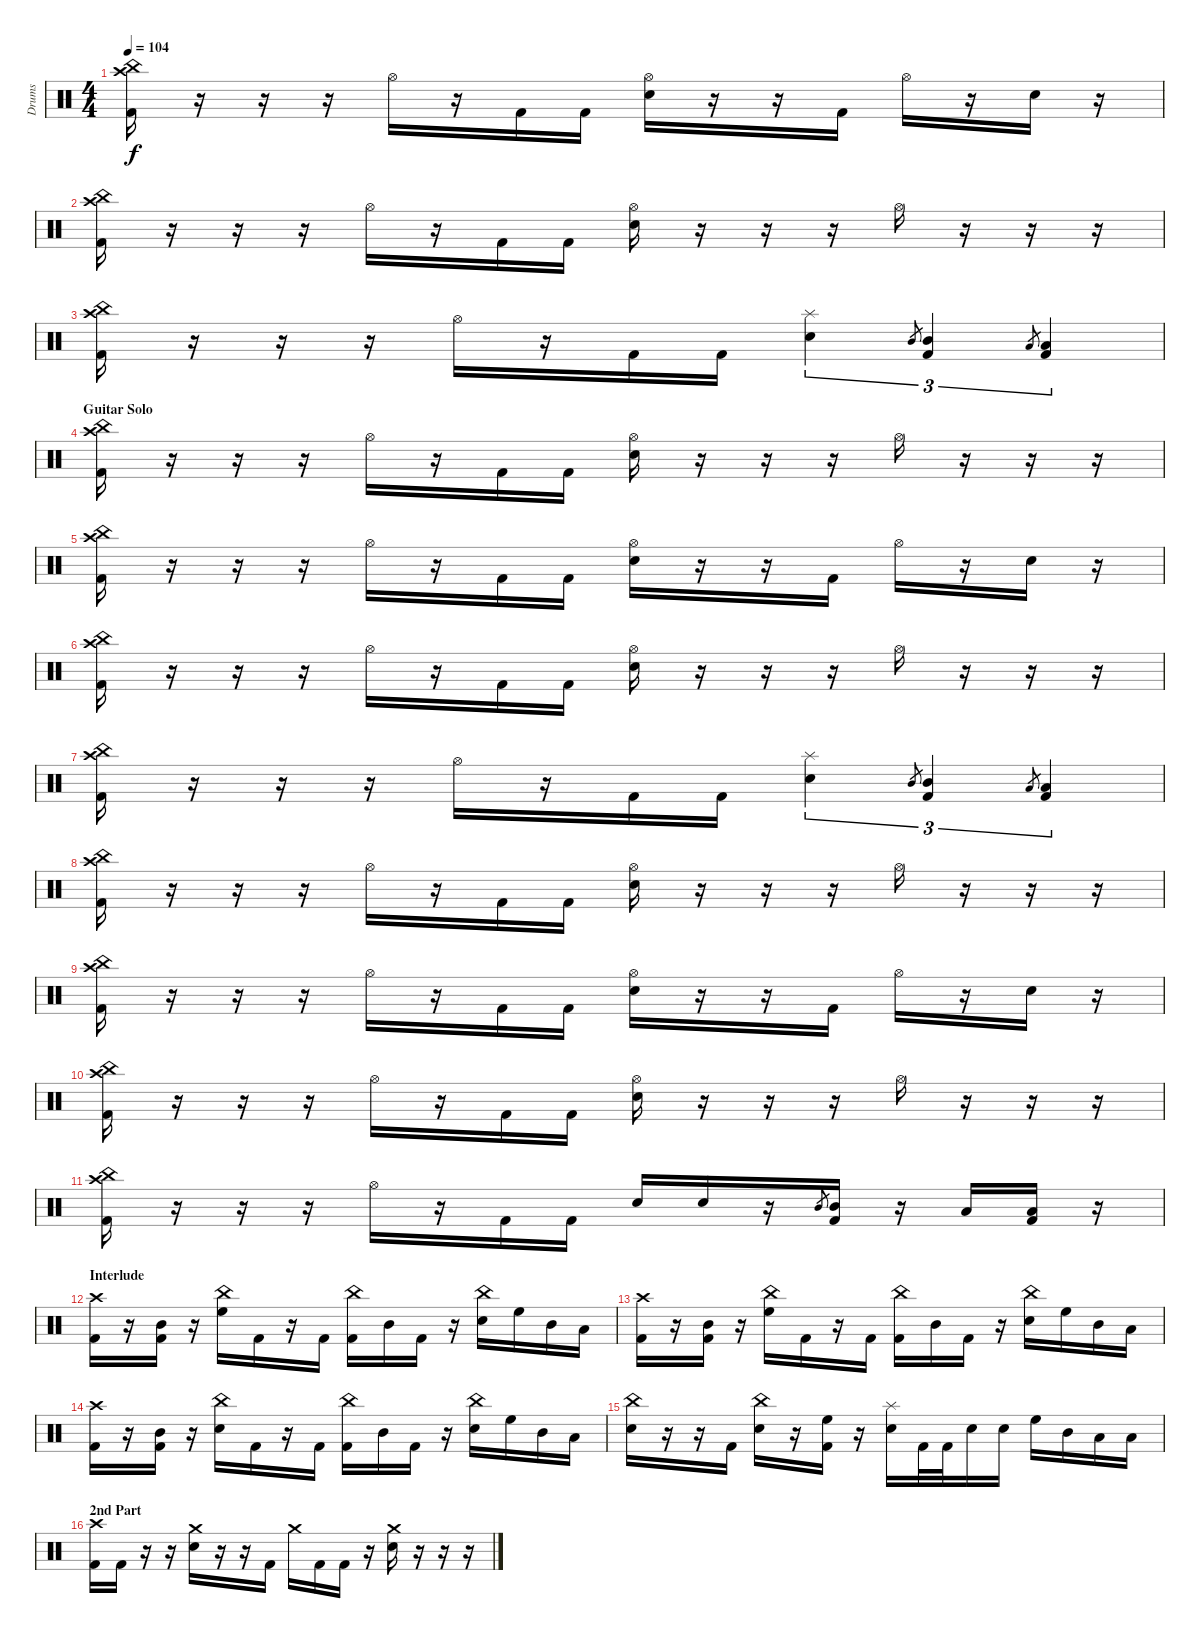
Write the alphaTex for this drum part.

\track ("Drums" "Drums") {instrument percussion}
\staff {score}
\articulation defaults
\ts (4 4)
\tempo 104
\clef neutral
\ks c
("Crash high (hit)" "China (hit)" "Kick (hit) 2").16{dy f} r.16 r.16 r.16 "Hi-Hat (open)".16 r.16 "Kick (hit) 2".16 "Kick (hit) 2".16 ("Hi-Hat (open)" "Electric Snare (hit)").16 r.16 r.16 "Kick (hit) 2".16 "Hi-Hat (open)".16 r.16 "Electric Snare (hit)".16 r.16 |
("Crash high (hit)" "China (hit)" "Kick (hit) 2").16 r.16 r.16 r.16 "Hi-Hat (open)".16 r.16 "Kick (hit) 2".16 "Kick (hit) 2".16 ("Hi-Hat (open)" "Electric Snare (hit)").16 r.16 r.16 r.16 "Hi-Hat (open)".16 r.16 r.16 r.16 |
("Crash high (hit)" "China (hit)" "Kick (hit) 2").16 r.16 r.16 r.16 "Hi-Hat (open)".16 r.16 "Kick (hit) 2".16 "Kick (hit) 2".16 ("Splash (hit)" "Electric Snare (hit)").4{tu (3 2)} "Mid Tom (hit)".8{gr} ("Mid Tom (hit)" "Kick (hit) 2").4{tu (3 2)} "Low Tom (hit)".8{gr} ("Low Tom (hit)" "Kick (hit) 2").4{tu (3 2)} |
\section ("" "Guitar Solo")
("Crash high (hit)" "China (hit)" "Kick (hit) 2").16 r.16 r.16 r.16 "Hi-Hat (open)".16 r.16 "Kick (hit) 2".16 "Kick (hit) 2".16 ("Hi-Hat (open)" "Electric Snare (hit)").16 r.16 r.16 r.16 "Hi-Hat (open)".16 r.16 r.16 r.16 |
("Crash high (hit)" "China (hit)" "Kick (hit) 2").16 r.16 r.16 r.16 "Hi-Hat (open)".16 r.16 "Kick (hit) 2".16 "Kick (hit) 2".16 ("Hi-Hat (open)" "Electric Snare (hit)").16 r.16 r.16 "Kick (hit) 2".16 "Hi-Hat (open)".16 r.16 "Electric Snare (hit)".16 r.16 |
("Crash high (hit)" "China (hit)" "Kick (hit) 2").16 r.16 r.16 r.16 "Hi-Hat (open)".16 r.16 "Kick (hit) 2".16 "Kick (hit) 2".16 ("Hi-Hat (open)" "Electric Snare (hit)").16 r.16 r.16 r.16 "Hi-Hat (open)".16 r.16 r.16 r.16 |
("Crash high (hit)" "China (hit)" "Kick (hit) 2").16 r.16 r.16 r.16 "Hi-Hat (open)".16 r.16 "Kick (hit) 2".16 "Kick (hit) 2".16 ("Splash (hit)" "Electric Snare (hit)").4{tu (3 2)} "Mid Tom (hit)".8{gr} ("Mid Tom (hit)" "Kick (hit) 2").4{tu (3 2)} "Low Tom (hit)".8{gr} ("Low Tom (hit)" "Kick (hit) 2").4{tu (3 2)} |
("Crash high (hit)" "China (hit)" "Kick (hit) 2").16 r.16 r.16 r.16 "Hi-Hat (open)".16 r.16 "Kick (hit) 2".16 "Kick (hit) 2".16 ("Hi-Hat (open)" "Electric Snare (hit)").16 r.16 r.16 r.16 "Hi-Hat (open)".16 r.16 r.16 r.16 |
("Crash high (hit)" "China (hit)" "Kick (hit) 2").16 r.16 r.16 r.16 "Hi-Hat (open)".16 r.16 "Kick (hit) 2".16 "Kick (hit) 2".16 ("Hi-Hat (open)" "Electric Snare (hit)").16 r.16 r.16 "Kick (hit) 2".16 "Hi-Hat (open)".16 r.16 "Electric Snare (hit)".16 r.16 |
("Crash high (hit)" "China (hit)" "Kick (hit) 2").16 r.16 r.16 r.16 "Hi-Hat (open)".16 r.16 "Kick (hit) 2".16 "Kick (hit) 2".16 ("Hi-Hat (open)" "Electric Snare (hit)").16 r.16 r.16 r.16 "Hi-Hat (open)".16 r.16 r.16 r.16 |
("Crash high (hit)" "China (hit)" "Kick (hit) 2").16 r.16 r.16 r.16 "Hi-Hat (open)".16 r.16 "Kick (hit) 2".16 "Kick (hit) 2".16 "Electric Snare (hit)".16 "Electric Snare (hit)".16 r.16 "Mid Tom (hit)".8{gr} ("Mid Tom (hit)" "Kick (hit) 2").16 r.16 "Low Tom (hit)".16 ("Low Floor Tom (hit)" "Kick (hit) 2").16 r.16 |
\section ("" "Interlude")
("Crash high (hit)" "Kick (hit) 2").16 r.16 ("Mid Tom (hit)" "Kick (hit) 2").16 r.16 ("China (hit)" "High Floor Tom (hit)").16 "Kick (hit) 2".16 r.16 "Kick (hit) 2".16 ("China (hit)" "Kick (hit) 2").16 "Mid Tom (hit)".16 "Kick (hit) 2".16 r.16 ("China (hit)" "Electric Snare (hit)").16 "High Floor Tom (hit)".16 "Mid Tom (hit)".16 "Low Tom (hit)".16 |
("Crash high (hit)" "Kick (hit) 2").16 r.16 ("Mid Tom (hit)" "Kick (hit) 2").16 r.16 ("China (hit)" "High Floor Tom (hit)").16 "Kick (hit) 2".16 r.16 "Kick (hit) 2".16 ("China (hit)" "Kick (hit) 2").16 "Mid Tom (hit)".16 "Kick (hit) 2".16 r.16 ("China (hit)" "Electric Snare (hit)").16 "High Floor Tom (hit)".16 "Mid Tom (hit)".16 "Low Tom (hit)".16 |
("Crash high (hit)" "Kick (hit) 2").16 r.16 ("Mid Tom (hit)" "Kick (hit) 2").16 r.16 ("China (hit)" "Electric Snare (hit)").16 "Kick (hit) 2".16 r.16 "Kick (hit) 2".16 ("China (hit)" "Kick (hit) 2").16 "Mid Tom (hit)".16 "Kick (hit) 2".16 r.16 ("China (hit)" "Electric Snare (hit)").16 "High Floor Tom (hit)".16 "Mid Tom (hit)".16 "Low Tom (hit)".16 |
("China (hit)" "Electric Snare (hit)").16 r.16 r.16 "Kick (hit) 2".16 ("China (hit)" "Electric Snare (hit)").16 r.16 ("High Floor Tom (hit)" "Kick (hit) 2").16 r.16 ("Splash (hit)" "Electric Snare (hit)").16 "Kick (hit) 2".32 "Kick (hit) 2".32 "Electric Snare (hit)".16 "Electric Snare (hit)".16 "High Floor Tom (hit)".16 "Mid Tom (hit)".16 "Low Tom (hit)".16 "Low Floor Tom (hit)".16 |
\section ("" "2nd Part")
("Crash high (hit)" "Kick (hit) 2").16 "Kick (hit) 2".16 r.16 r.16 ("Crash medium (hit)" "Electric Snare (hit)").16 r.16 r.16 "Kick (hit) 2".16 "Crash medium (hit)".16 "Kick (hit) 2".16 "Kick (hit) 2".16 r.16 ("Crash medium (hit)" "Electric Snare (hit)").16 r.16 r.16 r.16
